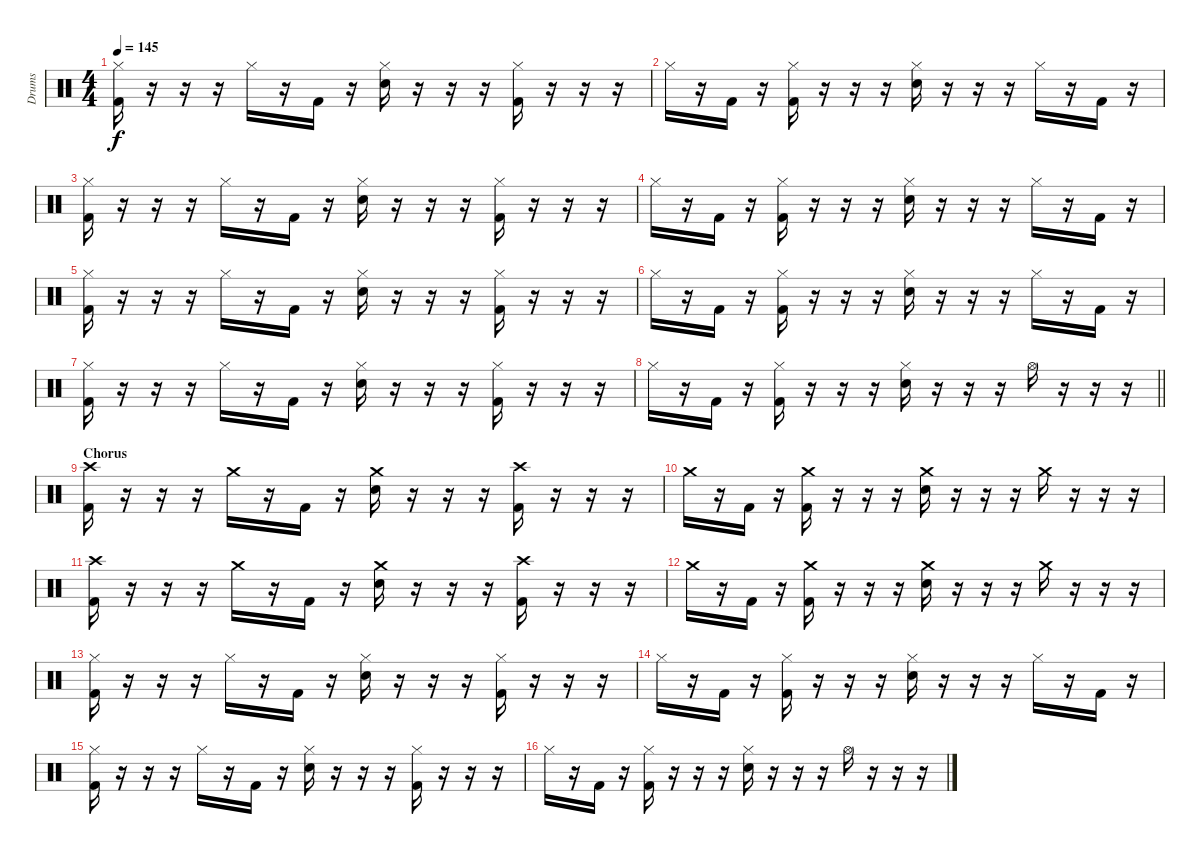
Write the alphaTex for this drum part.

\track ("Drums" "Drums") {instrument percussion}
\staff {score}
\articulation defaults
\ts (4 4)
\tempo 145
\clef neutral
\ks c
("Hi-Hat (closed)" "Kick (hit) 2").16{dy f} r.16 r.16 r.16 "Hi-Hat (closed)".16 r.16 "Kick (hit) 2".16 r.16 ("Hi-Hat (closed)" "Electric Snare (hit)").16 r.16 r.16 r.16 ("Hi-Hat (closed)" "Kick (hit) 2").16 r.16 r.16 r.16 |
"Hi-Hat (closed)".16 r.16 "Kick (hit) 2".16 r.16 ("Hi-Hat (closed)" "Kick (hit) 2").16 r.16 r.16 r.16 ("Hi-Hat (closed)" "Electric Snare (hit)").16 r.16 r.16 r.16 "Hi-Hat (closed)".16 r.16 "Kick (hit) 2".16 r.16 |
("Hi-Hat (closed)" "Kick (hit) 2").16 r.16 r.16 r.16 "Hi-Hat (closed)".16 r.16 "Kick (hit) 2".16 r.16 ("Hi-Hat (closed)" "Electric Snare (hit)").16 r.16 r.16 r.16 ("Hi-Hat (closed)" "Kick (hit) 2").16 r.16 r.16 r.16 |
"Hi-Hat (closed)".16 r.16 "Kick (hit) 2".16 r.16 ("Hi-Hat (closed)" "Kick (hit) 2").16 r.16 r.16 r.16 ("Hi-Hat (closed)" "Electric Snare (hit)").16 r.16 r.16 r.16 "Hi-Hat (closed)".16 r.16 "Kick (hit) 2".16 r.16 |
("Hi-Hat (closed)" "Kick (hit) 2").16 r.16 r.16 r.16 "Hi-Hat (closed)".16 r.16 "Kick (hit) 2".16 r.16 ("Hi-Hat (closed)" "Electric Snare (hit)").16 r.16 r.16 r.16 ("Hi-Hat (closed)" "Kick (hit) 2").16 r.16 r.16 r.16 |
"Hi-Hat (closed)".16 r.16 "Kick (hit) 2".16 r.16 ("Hi-Hat (closed)" "Kick (hit) 2").16 r.16 r.16 r.16 ("Hi-Hat (closed)" "Electric Snare (hit)").16 r.16 r.16 r.16 "Hi-Hat (closed)".16 r.16 "Kick (hit) 2".16 r.16 |
("Hi-Hat (closed)" "Kick (hit) 2").16 r.16 r.16 r.16 "Hi-Hat (closed)".16 r.16 "Kick (hit) 2".16 r.16 ("Hi-Hat (closed)" "Electric Snare (hit)").16 r.16 r.16 r.16 ("Hi-Hat (closed)" "Kick (hit) 2").16 r.16 r.16 r.16 |
\barLineRight lightlight "Hi-Hat (closed)".16
r.16 "Kick (hit) 2".16 r.16 ("Hi-Hat (closed)" "Kick (hit) 2").16 r.16 r.16 r.16 ("Hi-Hat (closed)" "Electric Snare (hit)").16 r.16 r.16 r.16 "Hi-Hat (open)".16 r.16 r.16 r.16 |
\section ("" "Chorus")
("Crash high (hit)" "Kick (hit) 2").16 r.16 r.16 r.16 "Crash medium (hit)".16 r.16 "Kick (hit) 2".16 r.16 ("Crash medium (hit)" "Electric Snare (hit)").16 r.16 r.16 r.16 ("Crash high (hit)" "Kick (hit) 2").16 r.16 r.16 r.16 |
"Crash medium (hit)".16 r.16 "Kick (hit) 2".16 r.16 ("Crash medium (hit)" "Kick (hit) 2").16 r.16 r.16 r.16 ("Crash medium (hit)" "Electric Snare (hit)").16 r.16 r.16 r.16 "Crash medium (hit)".16 r.16 r.16 r.16 |
("Crash high (hit)" "Kick (hit) 2").16 r.16 r.16 r.16 "Crash medium (hit)".16 r.16 "Kick (hit) 2".16 r.16 ("Crash medium (hit)" "Electric Snare (hit)").16 r.16 r.16 r.16 ("Crash high (hit)" "Kick (hit) 2").16 r.16 r.16 r.16 |
"Crash medium (hit)".16 r.16 "Kick (hit) 2".16 r.16 ("Crash medium (hit)" "Kick (hit) 2").16 r.16 r.16 r.16 ("Crash medium (hit)" "Electric Snare (hit)").16 r.16 r.16 r.16 "Crash medium (hit)".16 r.16 r.16 r.16 |
("Hi-Hat (closed)" "Kick (hit) 2").16 r.16 r.16 r.16 "Hi-Hat (closed)".16 r.16 "Kick (hit) 2".16 r.16 ("Hi-Hat (closed)" "Electric Snare (hit)").16 r.16 r.16 r.16 ("Hi-Hat (closed)" "Kick (hit) 2").16 r.16 r.16 r.16 |
"Hi-Hat (closed)".16 r.16 "Kick (hit) 2".16 r.16 ("Hi-Hat (closed)" "Kick (hit) 2").16 r.16 r.16 r.16 ("Hi-Hat (closed)" "Electric Snare (hit)").16 r.16 r.16 r.16 "Hi-Hat (closed)".16 r.16 "Kick (hit) 2".16 r.16 |
("Hi-Hat (closed)" "Kick (hit) 2").16 r.16 r.16 r.16 "Hi-Hat (closed)".16 r.16 "Kick (hit) 2".16 r.16 ("Hi-Hat (closed)" "Electric Snare (hit)").16 r.16 r.16 r.16 ("Hi-Hat (closed)" "Kick (hit) 2").16 r.16 r.16 r.16 |
"Hi-Hat (closed)".16 r.16 "Kick (hit) 2".16 r.16 ("Hi-Hat (closed)" "Kick (hit) 2").16 r.16 r.16 r.16 ("Hi-Hat (closed)" "Electric Snare (hit)").16 r.16 r.16 r.16 "Hi-Hat (open)".16 r.16 r.16 r.16
